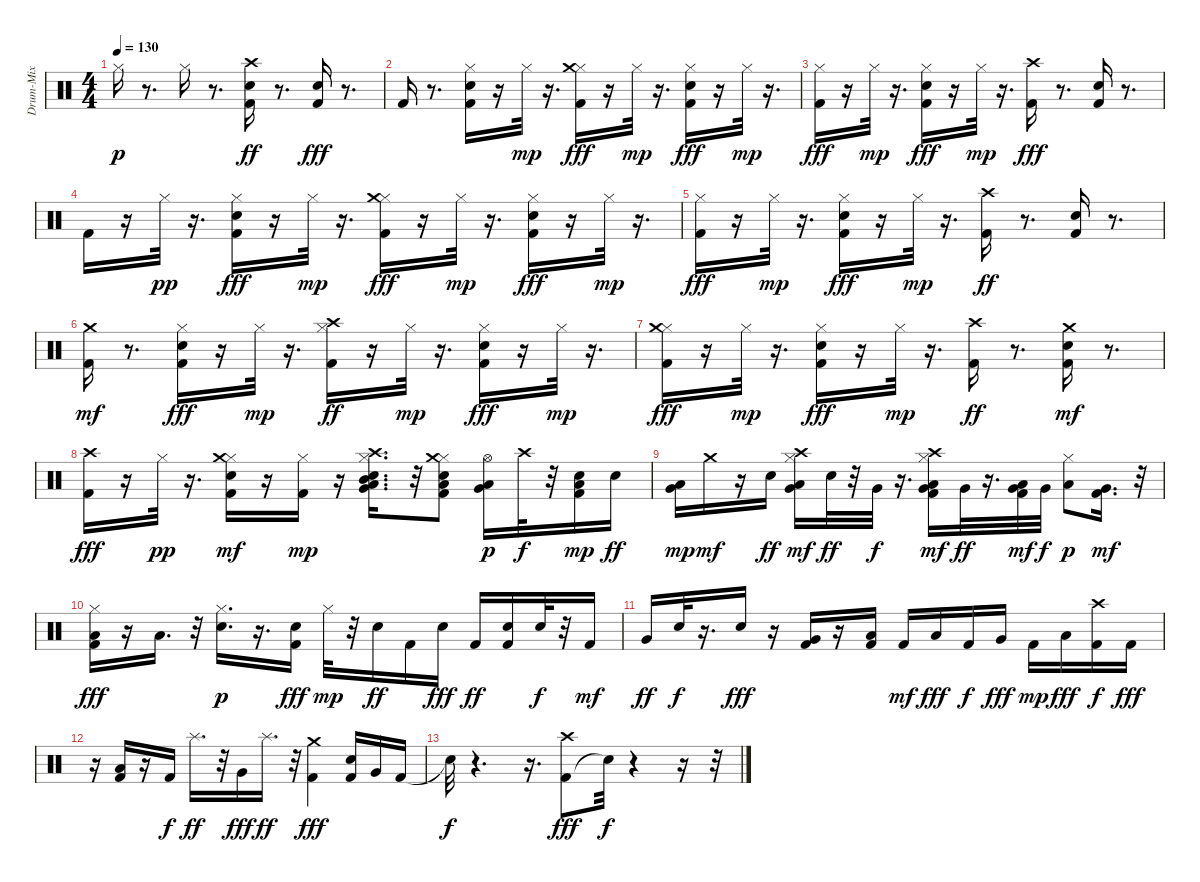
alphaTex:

\track ("Drum-Mix" "Drum-Mix") {instrument percussion}
\staff {score}
\articulation defaults
\ts (4 4)
\tempo 130
\clef neutral
\ks c "Hi-Hat (closed)".16{dy p}
r.8{d} "Hi-Hat (closed)".16 r.8{d} ("Kick (hit) 2" "Snare (hit) 2" "Crash high (hit)").16{dy ff} r.8{d} ("Kick (hit) 2" "Snare (hit) 2").16{dy fff} r.8{d} |
"Kick (hit) 2".16 r.8{d} ("Kick (hit) 2" "Snare (hit) 2" "Hi-Hat (closed)").16 r.16 "Hi-Hat (closed)".32{dy mp} r.16{d} ("Kick (hit) 2" "Hi-Hat (closed)" "Crash medium (hit)").16{dy fff} r.16 "Hi-Hat (closed)".32{dy mp} r.16{d} ("Kick (hit) 2" "Snare (hit) 2" "Hi-Hat (closed)").16{dy fff} r.16 "Hi-Hat (closed)".32{dy mp} r.16{d} |
("Kick (hit) 2" "Hi-Hat (closed)").16{dy fff} r.16 "Hi-Hat (closed)".32{dy mp} r.16{d} ("Kick (hit) 2" "Snare (hit) 2" "Hi-Hat (closed)").16{dy fff} r.16 "Hi-Hat (closed)".32{dy mp} r.16{d} ("Kick (hit) 2" "Crash high (hit)").16{dy fff} r.8{d} ("Kick (hit) 2" "Snare (hit) 2").16 r.8{d} |
"Kick (hit) 2".16 r.16 "Hi-Hat (closed)".32{dy pp} r.16{d} ("Kick (hit) 2" "Snare (hit) 2" "Hi-Hat (closed)").16{dy fff} r.16 "Hi-Hat (closed)".32{dy mp} r.16{d} ("Kick (hit) 2" "Hi-Hat (closed)" "Crash medium (hit)").16{dy fff} r.16 "Hi-Hat (closed)".32{dy mp} r.16{d} ("Kick (hit) 2" "Snare (hit) 2" "Hi-Hat (closed)").16{dy fff} r.16 "Hi-Hat (closed)".32{dy mp} r.16{d} |
("Kick (hit) 2" "Hi-Hat (closed)").16{dy fff} r.16 "Hi-Hat (closed)".32{dy mp} r.16{d} ("Kick (hit) 2" "Snare (hit) 2" "Hi-Hat (closed)").16{dy fff} r.16 "Hi-Hat (closed)".32{dy mp} r.16{d} ("Kick (hit) 2" "Crash high (hit)").16{dy ff} r.8{d} ("Kick (hit) 2" "Snare (hit) 2").16 r.8{d} |
("Kick (hit) 2" "Crash medium (hit)").16{dy mf} r.8{d} ("Kick (hit) 2" "Snare (hit) 2" "Hi-Hat (closed)").16{dy fff} r.16 "Hi-Hat (closed)".32{dy mp} r.16{d} ("Kick (hit) 2" "Hi-Hat (closed)" "Crash high (hit)").16{dy ff} r.16 "Hi-Hat (closed)".32{dy mp} r.16{d} ("Kick (hit) 2" "Snare (hit) 2" "Hi-Hat (closed)").16{dy fff} r.16 "Hi-Hat (closed)".32{dy mp} r.16{d} |
("Kick (hit) 2" "Hi-Hat (closed)" "Crash medium (hit)").16{dy fff} r.16 "Hi-Hat (closed)".32{dy mp} r.16{d} ("Kick (hit) 2" "Snare (hit) 2" "Hi-Hat (closed)").16{dy fff} r.16 "Hi-Hat (closed)".32{dy mp} r.16{d} ("Kick (hit) 2" "Crash high (hit)").16{dy ff} r.8{d} ("Kick (hit) 2" "Snare (hit) 2" "Crash medium (hit)").16{dy mf} r.8{d} |
("Kick (hit) 2" "Crash high (hit)").16{dy fff} r.16 "Hi-Hat (closed)".32{dy pp} r.16{d} ("Kick (hit) 2" "Snare (hit) 2" "Hi-Hat (closed)" "Crash medium (hit)").16{dy mf} r.16 ("Kick (hit) 2" "Hi-Hat (closed)").16{dy mp} r.16 ("Snare (hit) 2" "Low Floor Tom (hit)" "Hi-Hat (closed)" "Very Low Tom (hit)" "Mid Tom (hit)" "Crash high (hit)").16{d} r.32 ("Kick (hit) 2" "Snare (hit) 2" "Hi-Hat (closed)" "Low Tom (hit)" "Crash medium (hit)").8 ("Low Floor Tom (hit)" "Very Low Tom (hit)" "Hi-Hat (open)").16{dy p} "Crash high (hit)".32{dy f} r.32 ("Kick (hit) 2" "Snare (hit) 2" "Low Floor Tom (hit)").16{dy mp} "Snare (hit) 2".16{dy ff} |
("Low Floor Tom (hit)" "Very Low Tom (hit)").16{dy mp} "Crash medium (hit)".16{dy mf} r.16 "Snare (hit) 2".16{dy ff} ("Low Floor Tom (hit)" "Hi-Hat (closed)" "Very Low Tom (hit)" "Crash high (hit)").16{dy mf} "Snare (hit) 2".32{dy ff} r.32 "Very Low Tom (hit)".32{dy f} r.16{d} ("Kick (hit) 2" "Low Floor Tom (hit)" "Hi-Hat (closed)" "Very Low Tom (hit)" "Crash high (hit)").16{dy mf} "Very Low Tom (hit)".32{dy ff} r.16{d} ("Kick (hit) 2" "Very Low Tom (hit)" "Low Tom (hit)").32{dy mf} "Very Low Tom (hit)".32{dy f} ("Low Floor Tom (hit)" "Hi-Hat (closed)").8{dy p} ("Kick (hit) 2" "Very Low Tom (hit)").16{d dy mf} r.32 |
("Kick (hit) 2" "Hi-Hat (closed)" "Low Tom (hit)").16{dy fff} r.16 "Low Tom (hit)".16{d} r.32 ("Snare (hit) 2" "Hi-Hat (closed)").16{d dy p} r.16{d} ("Kick (hit) 2" "Snare (hit) 2").16{dy fff} "Hi-Hat (closed)".32{dy mp} r.32 "Snare (hit) 2".16{dy ff} "Kick (hit) 2".16 "Snare (hit) 2".16{dy fff} "Kick (hit) 2".16{dy ff} ("Kick (hit) 2" "Snare (hit) 2").16 "Snare (hit) 2".32{dy f} r.32 "Kick (hit) 2".16{dy mf} |
"Very Low Tom (hit)".16{dy ff} "Snare (hit) 2".32{dy f} r.16{d} "Snare (hit) 2".16{dy fff} r.16 ("Kick (hit) 2" "Very Low Tom (hit)").16 r.16 ("Kick (hit) 2" "Low Floor Tom (hit)").16 "Kick (hit) 2".16{dy mf} "Low Tom (hit)".16{dy fff} "Kick (hit) 2".16{dy f} "Very Low Tom (hit)".16{dy fff} "Kick (hit) 2".16{dy mp} "Low Floor Tom (hit)".16{dy fff} ("Kick (hit) 2" "Crash high (hit)").16{dy f} "Kick (hit) 2".16{dy fff} |
r.16 ("Kick (hit) 2" "Low Floor Tom (hit)").16 r.16 "Kick (hit) 2".16{dy f} "Splash (hit)".16{d dy ff} r.32 "Very Low Tom (hit)".16{dy fff} "Splash (hit)".16{d dy ff} r.32 ("Kick (hit) 2" "Crash medium (hit)").4{dy fff} ("Kick (hit) 2" "Snare (hit) 2").16 "Very Low Tom (hit)".16 "Kick (hit) 2".16 |
"Snare (hit)"{t}.32{dy f} r.4{d} r.16{d} ("Kick (hit) 2" "Crash high (hit)").8{dy fff} "Snare (hit)"{t}.32{dy f} r.4 r.16 r.32
